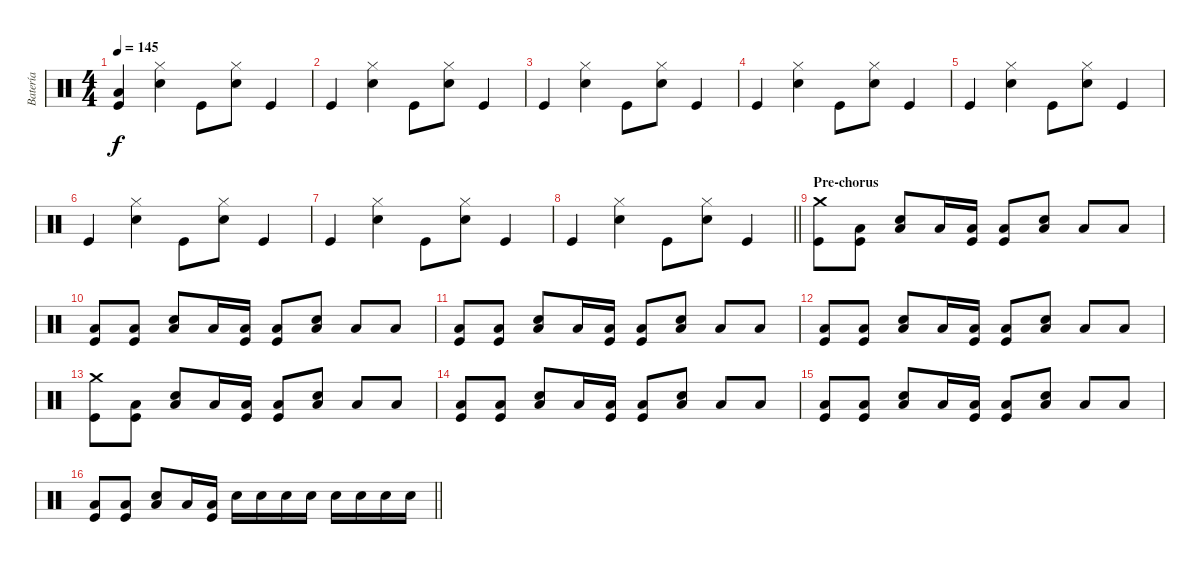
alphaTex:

\track ("Batería" "Batería") {instrument percussion}
\staff {score}
\articulation defaults
\ts (4 4)
\tempo 145
\clef neutral
\ks c
("Kick (hit)" "Low Floor Tom (hit)").4{dy f} ("Electric Snare (hit)" "Hi-Hat (closed)").4 "Kick (hit)".8 ("Electric Snare (hit)" "Hi-Hat (closed)").8 "Kick (hit)".4 |
"Kick (hit)".4 ("Electric Snare (hit)" "Hi-Hat (closed)").4 "Kick (hit)".8 ("Electric Snare (hit)" "Hi-Hat (closed)").8 "Kick (hit)".4 |
"Kick (hit)".4 ("Electric Snare (hit)" "Hi-Hat (closed)").4 "Kick (hit)".8 ("Electric Snare (hit)" "Hi-Hat (closed)").8 "Kick (hit)".4 |
"Kick (hit)".4 ("Electric Snare (hit)" "Hi-Hat (closed)").4 "Kick (hit)".8 ("Electric Snare (hit)" "Hi-Hat (closed)").8 "Kick (hit)".4 |
"Kick (hit)".4 ("Electric Snare (hit)" "Hi-Hat (closed)").4 "Kick (hit)".8 ("Electric Snare (hit)" "Hi-Hat (closed)").8 "Kick (hit)".4 |
"Kick (hit)".4 ("Electric Snare (hit)" "Hi-Hat (closed)").4 "Kick (hit)".8 ("Electric Snare (hit)" "Hi-Hat (closed)").8 "Kick (hit)".4 |
"Kick (hit)".4 ("Electric Snare (hit)" "Hi-Hat (closed)").4 "Kick (hit)".8 ("Electric Snare (hit)" "Hi-Hat (closed)").8 "Kick (hit)".4 |
\barLineRight lightlight "Kick (hit)".4
("Electric Snare (hit)" "Hi-Hat (closed)").4 "Kick (hit)".8 ("Electric Snare (hit)" "Hi-Hat (closed)").8 "Kick (hit)".4 |
\section ("" "Pre-chorus")
("Kick (hit)" "Crash medium (hit)").8 ("Kick (hit)" "Low Floor Tom (hit)").8 ("Electric Snare (hit)" "Low Floor Tom (hit)").8 "Low Tom (hit)".16 ("Kick (hit)" "Low Tom (hit)").16 ("Kick (hit)" "Low Floor Tom (hit)").8 ("Electric Snare (hit)" "Low Floor Tom (hit)").8 "Low Floor Tom (hit)".8 "Low Floor Tom (hit)".8 |
("Kick (hit)" "Low Floor Tom (hit)").8 ("Kick (hit)" "Low Floor Tom (hit)").8 ("Electric Snare (hit)" "Low Floor Tom (hit)").8 "Low Tom (hit)".16 ("Kick (hit)" "Low Tom (hit)").16 ("Kick (hit)" "Low Floor Tom (hit)").8 ("Electric Snare (hit)" "Low Floor Tom (hit)").8 "Low Floor Tom (hit)".8 "Low Floor Tom (hit)".8 |
("Kick (hit)" "Low Floor Tom (hit)").8 ("Kick (hit)" "Low Floor Tom (hit)").8 ("Electric Snare (hit)" "Low Floor Tom (hit)").8 "Low Tom (hit)".16 ("Kick (hit)" "Low Tom (hit)").16 ("Kick (hit)" "Low Floor Tom (hit)").8 ("Electric Snare (hit)" "Low Floor Tom (hit)").8 "Low Floor Tom (hit)".8 "Low Floor Tom (hit)".8 |
("Kick (hit)" "Low Floor Tom (hit)").8 ("Kick (hit)" "Low Floor Tom (hit)").8 ("Electric Snare (hit)" "Low Floor Tom (hit)").8 "Low Tom (hit)".16 ("Kick (hit)" "Low Tom (hit)").16 ("Kick (hit)" "Low Floor Tom (hit)").8 ("Electric Snare (hit)" "Low Floor Tom (hit)").8 "Low Floor Tom (hit)".8 "Low Floor Tom (hit)".8 |
("Kick (hit)" "Crash medium (hit)").8 ("Kick (hit)" "Low Floor Tom (hit)").8 ("Electric Snare (hit)" "Low Floor Tom (hit)").8 "Low Tom (hit)".16 ("Kick (hit)" "Low Tom (hit)").16 ("Kick (hit)" "Low Floor Tom (hit)").8 ("Electric Snare (hit)" "Low Floor Tom (hit)").8 "Low Floor Tom (hit)".8 "Low Floor Tom (hit)".8 |
("Kick (hit)" "Low Floor Tom (hit)").8 ("Kick (hit)" "Low Floor Tom (hit)").8 ("Electric Snare (hit)" "Low Floor Tom (hit)").8 "Low Tom (hit)".16 ("Kick (hit)" "Low Tom (hit)").16 ("Kick (hit)" "Low Floor Tom (hit)").8 ("Electric Snare (hit)" "Low Floor Tom (hit)").8 "Low Floor Tom (hit)".8 "Low Floor Tom (hit)".8 |
("Kick (hit)" "Low Floor Tom (hit)").8 ("Kick (hit)" "Low Floor Tom (hit)").8 ("Electric Snare (hit)" "Low Floor Tom (hit)").8 "Low Tom (hit)".16 ("Kick (hit)" "Low Tom (hit)").16 ("Kick (hit)" "Low Floor Tom (hit)").8 ("Electric Snare (hit)" "Low Floor Tom (hit)").8 "Low Floor Tom (hit)".8 "Low Floor Tom (hit)".8 |
\barLineRight lightlight
("Kick (hit)" "Low Floor Tom (hit)").8 ("Kick (hit)" "Low Floor Tom (hit)").8 ("Electric Snare (hit)" "Low Floor Tom (hit)").8 "Low Tom (hit)".16 ("Kick (hit)" "Low Tom (hit)").16 "Electric Snare (hit)".16 "Electric Snare (hit)".16 "Electric Snare (hit)".16 "Electric Snare (hit)".16 "Electric Snare (hit)".16 "Electric Snare (hit)".16 "Electric Snare (hit)".16 "Electric Snare (hit)".16
